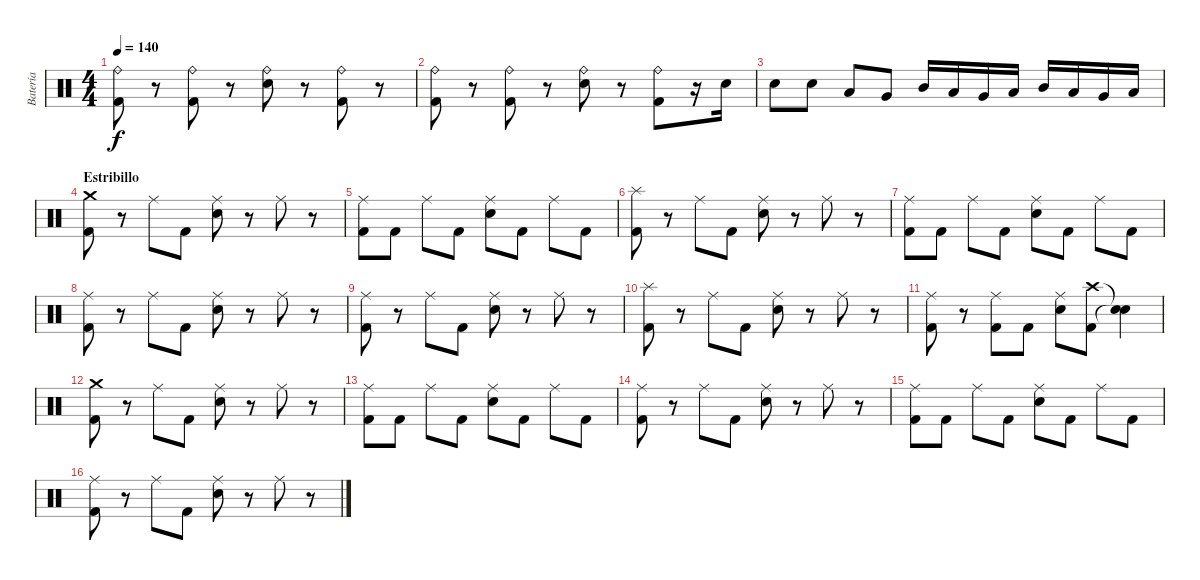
\track ("Batería" "Batería") {instrument percussion}
\staff {score}
\articulation defaults
\ts (4 4)
\tempo 140
\clef neutral
\ks c
("Ride (bell)" "Kick (hit) 2").8{dy f} r.8 ("Ride (bell)" "Kick (hit) 2").8 r.8 ("Ride (bell)" "Snare (hit) 2").8 r.8 ("Ride (bell)" "Kick (hit) 2").8 r.8 |
("Ride (bell)" "Kick (hit) 2").8 r.8 ("Ride (bell)" "Kick (hit) 2").8 r.8 ("Ride (bell)" "Snare (hit) 2").8 r.8 ("Ride (bell)" "Kick (hit) 2").8 r.16 "Snare (hit) 2".16 |
"Snare (hit) 2".8 "Snare (hit) 2".8 "Low Tom (hit)".8 "Very Low Tom (hit)".8 "Mid Tom (hit)".16 "Low Tom (hit)".16 "Very Low Tom (hit)".16 "Low Floor Tom (hit)".16 "Mid Tom (hit)".16 "Low Tom (hit)".16 "Very Low Tom (hit)".16 "Low Floor Tom (hit)".16 |
\section ("" "Estribillo")
("Crash medium (hit)" "Kick (hit) 2").8 r.8 "Ride (middle)".8 "Kick (hit) 2".8 ("Ride (middle)" "Snare (hit) 2").8 r.8 "Ride (middle)".8 r.8 |
("Ride (middle)" "Kick (hit) 2").8 "Kick (hit) 2".8 "Ride (middle)".8 "Kick (hit) 2".8 ("Ride (middle)" "Snare (hit) 2").8 "Kick (hit) 2".8 "Ride (middle)".8 "Kick (hit) 2".8 |
("Splash (hit)" "Kick (hit) 2").8 r.8 "Ride (middle)".8 "Kick (hit) 2".8 ("Ride (middle)" "Snare (hit) 2").8 r.8 "Ride (middle)".8 r.8 |
("Ride (middle)" "Kick (hit) 2").8 "Kick (hit) 2".8 "Ride (middle)".8 "Kick (hit) 2".8 ("Ride (middle)" "Snare (hit) 2").8 "Kick (hit) 2".8 "Ride (middle)".8 "Kick (hit) 2".8 |
("Ride (middle)" "Kick (hit) 2").8 r.8 "Ride (middle)".8 "Kick (hit) 2".8 ("Ride (middle)" "Snare (hit) 2").8 r.8 "Ride (middle)".8 r.8 |
("Ride (middle)" "Kick (hit) 2").8 r.8 "Ride (middle)".8 "Kick (hit) 2".8 ("Ride (middle)" "Snare (hit) 2").8 r.8 "Ride (middle)".8 r.8 |
("Splash (hit)" "Kick (hit) 2").8 r.8 "Ride (middle)".8 "Kick (hit) 2".8 ("Ride (middle)" "Snare (hit) 2").8 r.8 "Ride (middle)".8 r.8 |
("Ride (middle)" "Kick (hit) 2").8 r.8 ("Ride (middle)" "Kick (hit) 2").8 "Kick (hit) 2".8 ("Ride (middle)" "Snare (hit) 2").8 ("Crash high (hit)" "Kick (hit) 2").8 ("Snare (hit)"{t} "Snare (hit)"{t}).4 |
("Crash medium (hit)" "Kick (hit) 2").8 r.8 "Ride (middle)".8 "Kick (hit) 2".8 ("Ride (middle)" "Snare (hit) 2").8 r.8 "Ride (middle)".8 r.8 |
("Ride (middle)" "Kick (hit) 2").8 "Kick (hit) 2".8 "Ride (middle)".8 "Kick (hit) 2".8 ("Ride (middle)" "Snare (hit) 2").8 "Kick (hit) 2".8 "Ride (middle)".8 "Kick (hit) 2".8 |
("Ride (middle)" "Kick (hit) 2").8 r.8 "Ride (middle)".8 "Kick (hit) 2".8 ("Ride (middle)" "Snare (hit) 2").8 r.8 "Ride (middle)".8 r.8 |
("Ride (middle)" "Kick (hit) 2").8 "Kick (hit) 2".8 "Ride (middle)".8 "Kick (hit) 2".8 ("Ride (middle)" "Snare (hit) 2").8 "Kick (hit) 2".8 "Ride (middle)".8 "Kick (hit) 2".8 |
("Ride (middle)" "Kick (hit) 2").8 r.8 "Ride (middle)".8 "Kick (hit) 2".8 ("Ride (middle)" "Snare (hit) 2").8 r.8 "Ride (middle)".8 r.8
